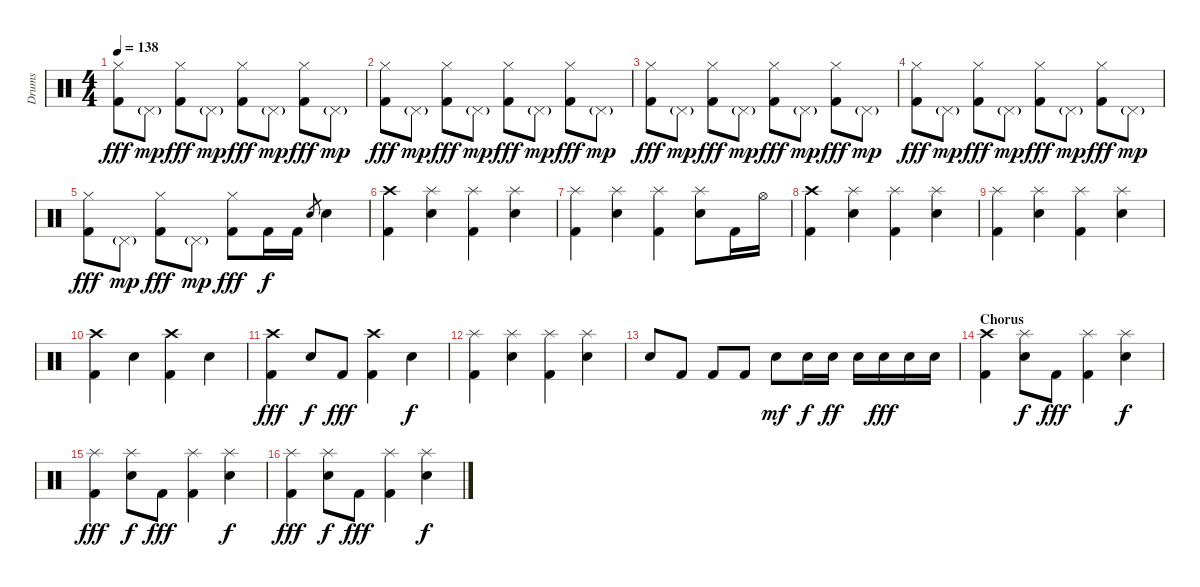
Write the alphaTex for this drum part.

\track ("Drums" "Drums") {instrument percussion}
\staff {score}
\articulation defaults
\ts (4 4)
\tempo 138
\clef neutral
\ks c
("Hi-Hat (closed)" "Kick (hit) 2").8{dy fff} "Pedal Hi-Hat (hit)"{g}.8{dy mp} ("Hi-Hat (closed)" "Kick (hit) 2").8{dy fff} "Pedal Hi-Hat (hit)"{g}.8{dy mp} ("Hi-Hat (closed)" "Kick (hit) 2").8{dy fff} "Pedal Hi-Hat (hit)"{g}.8{dy mp} ("Hi-Hat (closed)" "Kick (hit) 2").8{dy fff} "Pedal Hi-Hat (hit)"{g}.8{dy mp} |
("Hi-Hat (closed)" "Kick (hit) 2").8{dy fff} "Pedal Hi-Hat (hit)"{g}.8{dy mp} ("Hi-Hat (closed)" "Kick (hit) 2").8{dy fff} "Pedal Hi-Hat (hit)"{g}.8{dy mp} ("Hi-Hat (closed)" "Kick (hit) 2").8{dy fff} "Pedal Hi-Hat (hit)"{g}.8{dy mp} ("Hi-Hat (closed)" "Kick (hit) 2").8{dy fff} "Pedal Hi-Hat (hit)"{g}.8{dy mp} |
("Hi-Hat (closed)" "Kick (hit) 2").8{dy fff} "Pedal Hi-Hat (hit)"{g}.8{dy mp} ("Hi-Hat (closed)" "Kick (hit) 2").8{dy fff} "Pedal Hi-Hat (hit)"{g}.8{dy mp} ("Hi-Hat (closed)" "Kick (hit) 2").8{dy fff} "Pedal Hi-Hat (hit)"{g}.8{dy mp} ("Hi-Hat (closed)" "Kick (hit) 2").8{dy fff} "Pedal Hi-Hat (hit)"{g}.8{dy mp} |
("Hi-Hat (closed)" "Kick (hit) 2").8{dy fff} "Pedal Hi-Hat (hit)"{g}.8{dy mp} ("Hi-Hat (closed)" "Kick (hit) 2").8{dy fff} "Pedal Hi-Hat (hit)"{g}.8{dy mp} ("Hi-Hat (closed)" "Kick (hit) 2").8{dy fff} "Pedal Hi-Hat (hit)"{g}.8{dy mp} ("Hi-Hat (closed)" "Kick (hit) 2").8{dy fff} "Pedal Hi-Hat (hit)"{g}.8{dy mp} |
("Hi-Hat (closed)" "Kick (hit) 2").8{dy fff} "Pedal Hi-Hat (hit)"{g}.8{dy mp} ("Hi-Hat (closed)" "Kick (hit) 2").8{dy fff} "Pedal Hi-Hat (hit)"{g}.8{dy mp} ("Hi-Hat (closed)" "Kick (hit) 2").8{dy fff} "Kick (hit) 2".16{dy f} "Kick (hit) 2".16 "Snare (hit) 2".8{gr} "Snare (hit) 2".4 |
("Crash high (hit)" "Kick (hit) 2").4 ("Splash (hit)" "Snare (hit) 2").4 ("Splash (hit)" "Kick (hit) 2").4 ("Splash (hit)" "Snare (hit) 2").4 |
("Splash (hit)" "Kick (hit) 2").4 ("Splash (hit)" "Snare (hit) 2").4 ("Splash (hit)" "Kick (hit) 2").4 ("Splash (hit)" "Snare (hit) 2").8 "Kick (hit) 2".16 "Hi-Hat (open)".16 |
("Crash high (hit)" "Kick (hit) 2").4 ("Splash (hit)" "Snare (hit) 2").4 ("Splash (hit)" "Kick (hit) 2").4 ("Splash (hit)" "Snare (hit) 2").4 |
("Splash (hit)" "Kick (hit) 2").4 ("Splash (hit)" "Snare (hit) 2").4 ("Splash (hit)" "Kick (hit) 2").4 ("Splash (hit)" "Snare (hit) 2").4 |
("Crash high (hit)" "Kick (hit) 2").4 "Snare (hit) 2".4 ("Crash high (hit)" "Kick (hit) 2").4 "Snare (hit) 2".4 |
("Crash high (hit)" "Kick (hit) 2").4{dy fff} "Snare (hit) 2".8{dy f} "Kick (hit) 2".8{dy fff} ("Crash high (hit)" "Kick (hit) 2").4 "Snare (hit) 2".4{dy f} |
("Splash (hit)" "Kick (hit) 2").4 ("Splash (hit)" "Snare (hit) 2").4 ("Splash (hit)" "Kick (hit) 2").4 ("Splash (hit)" "Snare (hit) 2").4 |
"Snare (hit) 2".8 "Kick (hit) 2".8 "Kick (hit) 2".8 "Kick (hit) 2".8 "Snare (hit) 2".8{dy mf} "Snare (hit) 2".16{dy f} "Snare (hit) 2".16{dy ff} "Snare (hit) 2".16 "Snare (hit) 2".16{dy fff} "Snare (hit) 2".16 "Snare (hit) 2".16 |
\section ("" "Chorus")
("Crash high (hit)" "Kick (hit) 2").4 ("Splash (hit)" "Snare (hit) 2").8{dy f} "Kick (hit) 2".8{dy fff} ("Splash (hit)" "Kick (hit) 2").4 ("Splash (hit)" "Snare (hit) 2").4{dy f} |
("Splash (hit)" "Kick (hit) 2").4{dy fff} ("Splash (hit)" "Snare (hit) 2").8{dy f} "Kick (hit) 2".8{dy fff} ("Splash (hit)" "Kick (hit) 2").4 ("Splash (hit)" "Snare (hit) 2").4{dy f} |
("Splash (hit)" "Kick (hit) 2").4{dy fff} ("Splash (hit)" "Snare (hit) 2").8{dy f} "Kick (hit) 2".8{dy fff} ("Splash (hit)" "Kick (hit) 2").4 ("Splash (hit)" "Snare (hit) 2").4{dy f}
